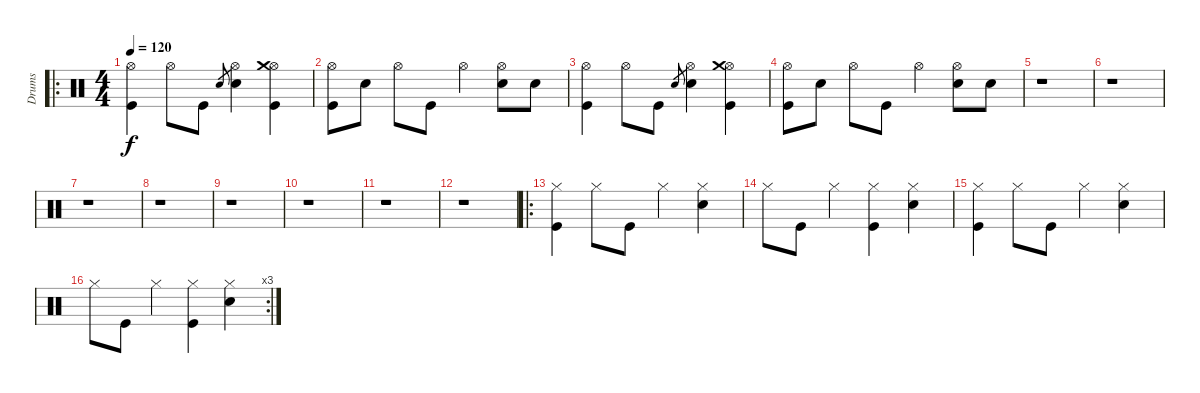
\track ("Drums" "Drums") {instrument percussion}
\staff {score}
\articulation defaults
\ro
\ts (4 4)
\tempo 120
\clef neutral
\ks c
("Hi-Hat (open)" "Kick (hit)").4{dy f} "Hi-Hat (open)".8 "Kick (hit)".8 "Electric Snare (hit)".8{gr} ("Hi-Hat (open)" "Electric Snare (hit)").4 ("Hi-Hat (open)" "Crash medium (hit)" "Kick (hit)").4 |
("Hi-Hat (open)" "Kick (hit)").8 "Electric Snare (hit)".8 "Hi-Hat (open)".8 "Kick (hit)".8 "Hi-Hat (open)".4 ("Hi-Hat (open)" "Electric Snare (hit)").8 "Electric Snare (hit)".8 |
("Hi-Hat (open)" "Kick (hit)").4 "Hi-Hat (open)".8 "Kick (hit)".8 "Electric Snare (hit)".8{gr} ("Hi-Hat (open)" "Electric Snare (hit)").4 ("Hi-Hat (open)" "Crash medium (hit)" "Kick (hit)").4 |
("Hi-Hat (open)" "Kick (hit)").8 "Electric Snare (hit)".8 "Hi-Hat (open)".8 "Kick (hit)".8 "Hi-Hat (open)".4 ("Hi-Hat (open)" "Electric Snare (hit)").8 "Electric Snare (hit)".8 |
r.1 |
r.1 |
r.1 |
r.1 |
r.1 |
r.1 |
r.1 |
r.1 |
\ro
("Hi-Hat (closed)" "Kick (hit)").4 "Hi-Hat (closed)".8 "Kick (hit)".8 "Hi-Hat (closed)".4 ("Hi-Hat (closed)" "Electric Snare (hit)").4 |
"Hi-Hat (closed)".8 "Kick (hit)".8 "Hi-Hat (closed)".4 ("Hi-Hat (closed)" "Kick (hit)").4 ("Hi-Hat (closed)" "Electric Snare (hit)").4 |
("Hi-Hat (closed)" "Kick (hit)").4 "Hi-Hat (closed)".8 "Kick (hit)".8 "Hi-Hat (closed)".4 ("Hi-Hat (closed)" "Electric Snare (hit)").4 |
\rc 3 "Hi-Hat (closed)".8 "Kick (hit)".8 "Hi-Hat (closed)".4
("Hi-Hat (closed)" "Kick (hit)").4 ("Hi-Hat (closed)" "Electric Snare (hit)").4
